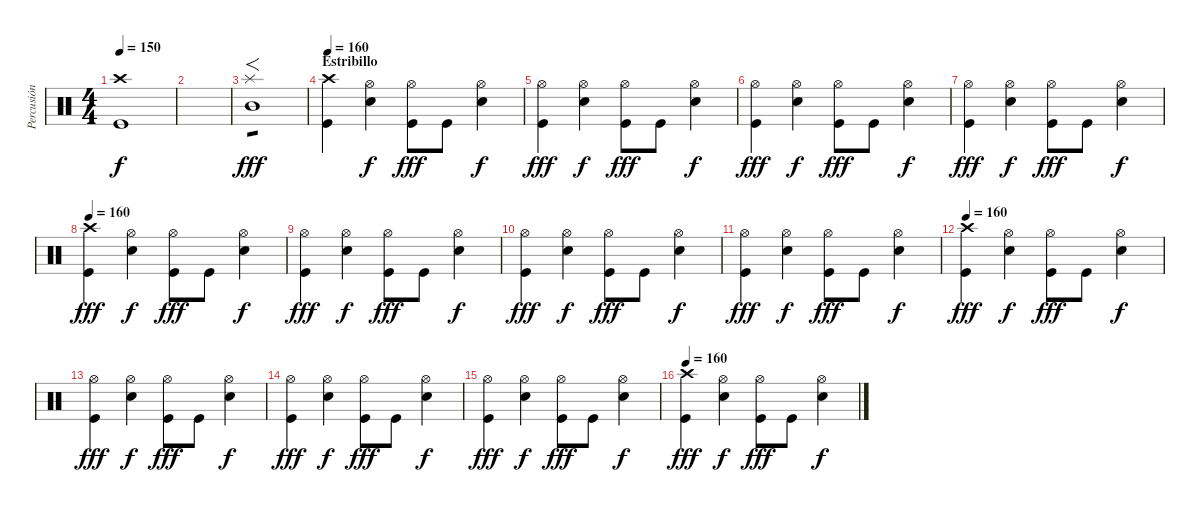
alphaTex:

\track ("Percusión" "Percusión") {instrument percussion}
\staff {score}
\articulation defaults
\ts (4 4)
\tempo 150
\clef neutral
\ks c
("Crash high (hit)" "Kick (hit)").1{dy f} |
|
("Splash (hit)" "Mid Tom (hit)").1{f tp 1 dy fff} |
\section ("" "Estribillo")
\tempo 160
("Crash high (hit)" "Kick (hit)").4 ("Hi-Hat (open)" "Electric Snare (hit)").4{dy f} ("Hi-Hat (open)" "Kick (hit)").8{dy fff} "Kick (hit)".8 ("Hi-Hat (open)" "Electric Snare (hit)").4{dy f} |
("Hi-Hat (open)" "Kick (hit)").4{dy fff} ("Hi-Hat (open)" "Electric Snare (hit)").4{dy f} ("Hi-Hat (open)" "Kick (hit)").8{dy fff} "Kick (hit)".8 ("Hi-Hat (open)" "Electric Snare (hit)").4{dy f} |
("Hi-Hat (open)" "Kick (hit)").4{dy fff} ("Hi-Hat (open)" "Electric Snare (hit)").4{dy f} ("Hi-Hat (open)" "Kick (hit)").8{dy fff} "Kick (hit)".8 ("Hi-Hat (open)" "Electric Snare (hit)").4{dy f} |
("Hi-Hat (open)" "Kick (hit)").4{dy fff} ("Hi-Hat (open)" "Electric Snare (hit)").4{dy f} ("Hi-Hat (open)" "Kick (hit)").8{dy fff} "Kick (hit)".8 ("Hi-Hat (open)" "Electric Snare (hit)").4{dy f} |
\tempo 160
("Crash high (hit)" "Kick (hit)").4{dy fff} ("Hi-Hat (open)" "Electric Snare (hit)").4{dy f} ("Hi-Hat (open)" "Kick (hit)").8{dy fff} "Kick (hit)".8 ("Hi-Hat (open)" "Electric Snare (hit)").4{dy f} |
("Hi-Hat (open)" "Kick (hit)").4{dy fff} ("Hi-Hat (open)" "Electric Snare (hit)").4{dy f} ("Hi-Hat (open)" "Kick (hit)").8{dy fff} "Kick (hit)".8 ("Hi-Hat (open)" "Electric Snare (hit)").4{dy f} |
("Hi-Hat (open)" "Kick (hit)").4{dy fff} ("Hi-Hat (open)" "Electric Snare (hit)").4{dy f} ("Hi-Hat (open)" "Kick (hit)").8{dy fff} "Kick (hit)".8 ("Hi-Hat (open)" "Electric Snare (hit)").4{dy f} |
("Hi-Hat (open)" "Kick (hit)").4{dy fff} ("Hi-Hat (open)" "Electric Snare (hit)").4{dy f} ("Hi-Hat (open)" "Kick (hit)").8{dy fff} "Kick (hit)".8 ("Hi-Hat (open)" "Electric Snare (hit)").4{dy f} |
\tempo 160
("Crash high (hit)" "Kick (hit)").4{dy fff} ("Hi-Hat (open)" "Electric Snare (hit)").4{dy f} ("Hi-Hat (open)" "Kick (hit)").8{dy fff} "Kick (hit)".8 ("Hi-Hat (open)" "Electric Snare (hit)").4{dy f} |
("Hi-Hat (open)" "Kick (hit)").4{dy fff} ("Hi-Hat (open)" "Electric Snare (hit)").4{dy f} ("Hi-Hat (open)" "Kick (hit)").8{dy fff} "Kick (hit)".8 ("Hi-Hat (open)" "Electric Snare (hit)").4{dy f} |
("Hi-Hat (open)" "Kick (hit)").4{dy fff} ("Hi-Hat (open)" "Electric Snare (hit)").4{dy f} ("Hi-Hat (open)" "Kick (hit)").8{dy fff} "Kick (hit)".8 ("Hi-Hat (open)" "Electric Snare (hit)").4{dy f} |
("Hi-Hat (open)" "Kick (hit)").4{dy fff} ("Hi-Hat (open)" "Electric Snare (hit)").4{dy f} ("Hi-Hat (open)" "Kick (hit)").8{dy fff} "Kick (hit)".8 ("Hi-Hat (open)" "Electric Snare (hit)").4{dy f} |
\tempo 160
("Crash high (hit)" "Kick (hit)").4{dy fff} ("Hi-Hat (open)" "Electric Snare (hit)").4{dy f} ("Hi-Hat (open)" "Kick (hit)").8{dy fff} "Kick (hit)".8 ("Hi-Hat (open)" "Electric Snare (hit)").4{dy f}
